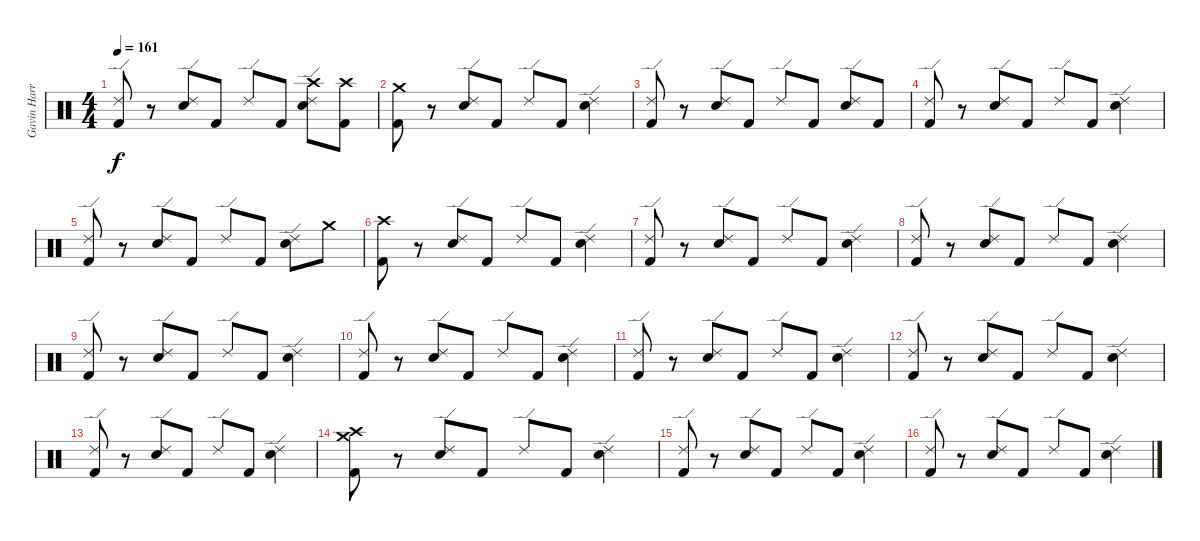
\track ("Gavin Harrison (Drums)" "Gavin Harr") {instrument percussion}
\staff {score}
\articulation defaults
\ts (4 4)
\tempo 161
\clef neutral
\ks c
("Ride (edge) 2" "Kick (hit) 2").8{dy f} r.8 ("Ride (edge) 2" "Electric Snare (hit)").8 "Kick (hit) 2".8 "Ride (edge) 2".8 "Kick (hit) 2".8 ("Crash high (hit)" "Ride (edge) 2" "Electric Snare (hit)").8 ("Crash high (hit)" "Kick (hit) 2").8 |
("Crash medium (hit)" "Kick (hit) 2").8 r.8 ("Ride (edge) 2" "Electric Snare (hit)").8 "Kick (hit) 2".8 "Ride (edge) 2".8 "Kick (hit) 2".8 ("Ride (edge) 2" "Electric Snare (hit)").4 |
("Ride (edge) 2" "Kick (hit) 2").8 r.8 ("Ride (edge) 2" "Electric Snare (hit)").8 "Kick (hit) 2".8 "Ride (edge) 2".8 "Kick (hit) 2".8 ("Ride (edge) 2" "Electric Snare (hit)").8 "Kick (hit) 2".8 |
("Ride (edge) 2" "Kick (hit) 2").8 r.8 ("Ride (edge) 2" "Electric Snare (hit)").8 "Kick (hit) 2".8 "Ride (edge) 2".8 "Kick (hit) 2".8 ("Ride (edge) 2" "Electric Snare (hit)").4 |
("Ride (edge) 2" "Kick (hit) 2").8 r.8 ("Ride (edge) 2" "Electric Snare (hit)").8 "Kick (hit) 2".8 "Ride (edge) 2".8 "Kick (hit) 2".8 ("Ride (edge) 2" "Electric Snare (hit)").8 "Crash medium (hit)".8 |
("Crash high (hit)" "Kick (hit) 2").8 r.8 ("Ride (edge) 2" "Electric Snare (hit)").8 "Kick (hit) 2".8 "Ride (edge) 2".8 "Kick (hit) 2".8 ("Ride (edge) 2" "Electric Snare (hit)").4 |
("Ride (edge) 2" "Kick (hit) 2").8 r.8 ("Ride (edge) 2" "Electric Snare (hit)").8 "Kick (hit) 2".8 "Ride (edge) 2".8 "Kick (hit) 2".8 ("Ride (edge) 2" "Electric Snare (hit)").4 |
("Ride (edge) 2" "Kick (hit) 2").8 r.8 ("Ride (edge) 2" "Electric Snare (hit)").8 "Kick (hit) 2".8 "Ride (edge) 2".8 "Kick (hit) 2".8 ("Ride (edge) 2" "Electric Snare (hit)").4 |
("Ride (edge) 2" "Kick (hit) 2").8 r.8 ("Ride (edge) 2" "Electric Snare (hit)").8 "Kick (hit) 2".8 "Ride (edge) 2".8 "Kick (hit) 2".8 ("Ride (edge) 2" "Electric Snare (hit)").4 |
("Ride (edge) 2" "Kick (hit) 2").8 r.8 ("Ride (edge) 2" "Electric Snare (hit)").8 "Kick (hit) 2".8 "Ride (edge) 2".8 "Kick (hit) 2".8 ("Ride (edge) 2" "Electric Snare (hit)").4 |
("Ride (edge) 2" "Kick (hit) 2").8 r.8 ("Ride (edge) 2" "Electric Snare (hit)").8 "Kick (hit) 2".8 "Ride (edge) 2".8 "Kick (hit) 2".8 ("Ride (edge) 2" "Electric Snare (hit)").4 |
("Ride (edge) 2" "Kick (hit) 2").8 r.8 ("Ride (edge) 2" "Electric Snare (hit)").8 "Kick (hit) 2".8 "Ride (edge) 2".8 "Kick (hit) 2".8 ("Ride (edge) 2" "Electric Snare (hit)").4 |
("Ride (edge) 2" "Kick (hit) 2").8 r.8 ("Ride (edge) 2" "Electric Snare (hit)").8 "Kick (hit) 2".8 "Ride (edge) 2".8 "Kick (hit) 2".8 ("Ride (edge) 2" "Electric Snare (hit)").4 |
("Crash high (hit)" "Crash medium (hit)" "Kick (hit) 2").8 r.8 ("Ride (edge) 2" "Electric Snare (hit)").8 "Kick (hit) 2".8 "Ride (edge) 2".8 "Kick (hit) 2".8 ("Ride (edge) 2" "Electric Snare (hit)").4 |
("Ride (edge) 2" "Kick (hit) 2").8 r.8 ("Ride (edge) 2" "Electric Snare (hit)").8 "Kick (hit) 2".8 "Ride (edge) 2".8 "Kick (hit) 2".8 ("Ride (edge) 2" "Electric Snare (hit)").4 |
("Ride (edge) 2" "Kick (hit) 2").8 r.8 ("Ride (edge) 2" "Electric Snare (hit)").8 "Kick (hit) 2".8 "Ride (edge) 2".8 "Kick (hit) 2".8 ("Ride (edge) 2" "Electric Snare (hit)").4
